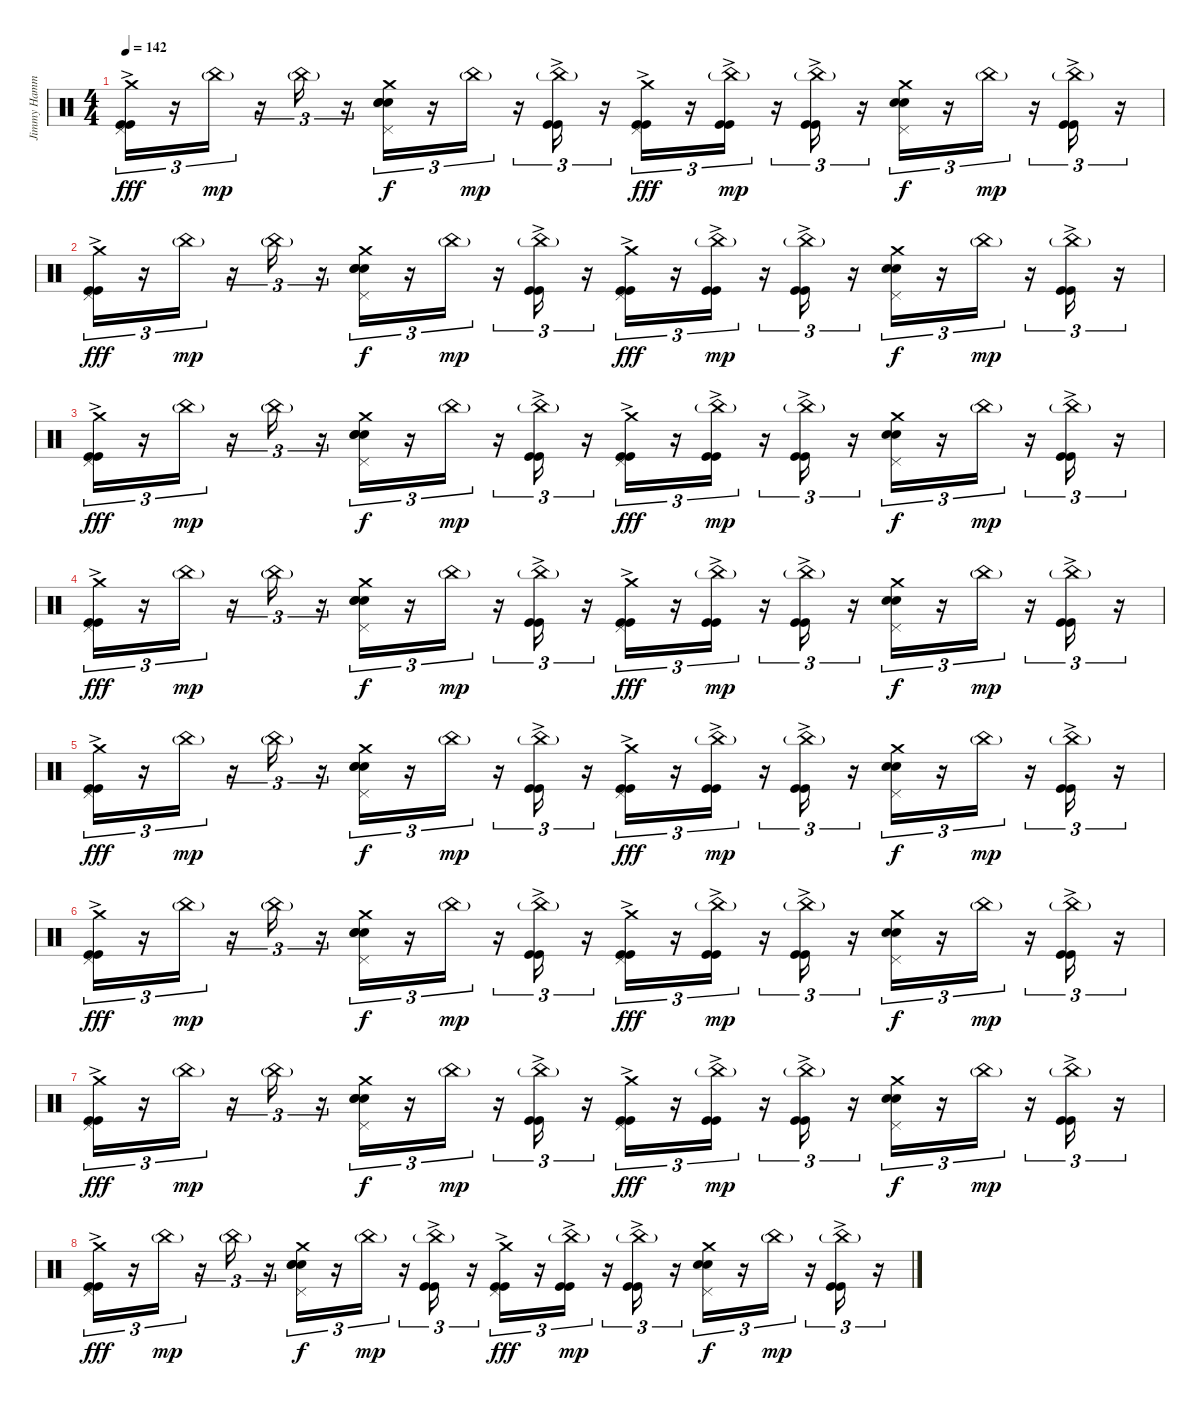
\track ("Jimmy Hammer" "Jimmy Hamm") {instrument percussion}
\staff {score}
\articulation defaults
\ts (4 4)
\tempo 142
\clef neutral
\ks c
("Kick (hit)"{ac} "Crash medium (hit)" "Pedal Hi-Hat (hit)" "Kick (hit)"{ac}).16{tu (3 2) dy fff} r.16{tu (3 2)} "China (hit)"{g}.16{tu (3 2) dy mp} r.16{tu (3 2)} "China (hit)"{g}.16{tu (3 2)} r.16{tu (3 2)} ("Crash medium (hit)" "Electric Snare (hit)" "Electric Snare (hit)" "Electric Snare (hit)" "Pedal Hi-Hat (hit)").16{tu (3 2) dy f} r.16{tu (3 2)} "China (hit)"{g}.16{tu (3 2) dy mp} r.16{tu (3 2)} ("Kick (hit)"{ac} "Kick (hit)"{ac} "China (hit)"{g}).16{tu (3 2)} r.16{tu (3 2)} ("Crash medium (hit)" "Kick (hit)"{ac} "Kick (hit)"{ac} "Pedal Hi-Hat (hit)").16{tu (3 2) dy fff} r.16{tu (3 2)} ("Kick (hit)"{ac} "Kick (hit)"{ac} "China (hit)"{g}).16{tu (3 2) dy mp} r.16{tu (3 2)} ("Kick (hit)"{ac} "Kick (hit)"{ac} "China (hit)"{g}).16{tu (3 2)} r.16{tu (3 2)} ("Electric Snare (hit)" "Electric Snare (hit)" "Crash medium (hit)" "Pedal Hi-Hat (hit)").16{tu (3 2) dy f} r.16{tu (3 2)} "China (hit)"{g}.16{tu (3 2) dy mp} r.16{tu (3 2)} ("Kick (hit)"{ac} "Kick (hit)"{ac} "China (hit)"{g}).16{tu (3 2)} r.16{tu (3 2)} |
("Kick (hit)"{ac} "Crash medium (hit)" "Pedal Hi-Hat (hit)" "Kick (hit)"{ac}).16{tu (3 2) dy fff} r.16{tu (3 2)} "China (hit)"{g}.16{tu (3 2) dy mp} r.16{tu (3 2)} "China (hit)"{g}.16{tu (3 2)} r.16{tu (3 2)} ("Crash medium (hit)" "Electric Snare (hit)" "Electric Snare (hit)" "Electric Snare (hit)" "Pedal Hi-Hat (hit)").16{tu (3 2) dy f} r.16{tu (3 2)} "China (hit)"{g}.16{tu (3 2) dy mp} r.16{tu (3 2)} ("Kick (hit)"{ac} "Kick (hit)"{ac} "China (hit)"{g}).16{tu (3 2)} r.16{tu (3 2)} ("Crash medium (hit)" "Kick (hit)"{ac} "Kick (hit)"{ac} "Pedal Hi-Hat (hit)").16{tu (3 2) dy fff} r.16{tu (3 2)} ("Kick (hit)"{ac} "Kick (hit)"{ac} "China (hit)"{g}).16{tu (3 2) dy mp} r.16{tu (3 2)} ("Kick (hit)"{ac} "Kick (hit)"{ac} "China (hit)"{g}).16{tu (3 2)} r.16{tu (3 2)} ("Electric Snare (hit)" "Electric Snare (hit)" "Crash medium (hit)" "Pedal Hi-Hat (hit)").16{tu (3 2) dy f} r.16{tu (3 2)} "China (hit)"{g}.16{tu (3 2) dy mp} r.16{tu (3 2)} ("Kick (hit)"{ac} "Kick (hit)"{ac} "China (hit)"{g}).16{tu (3 2)} r.16{tu (3 2)} |
("Kick (hit)"{ac} "Crash medium (hit)" "Pedal Hi-Hat (hit)" "Kick (hit)"{ac}).16{tu (3 2) dy fff} r.16{tu (3 2)} "China (hit)"{g}.16{tu (3 2) dy mp} r.16{tu (3 2)} "China (hit)"{g}.16{tu (3 2)} r.16{tu (3 2)} ("Crash medium (hit)" "Electric Snare (hit)" "Electric Snare (hit)" "Electric Snare (hit)" "Pedal Hi-Hat (hit)").16{tu (3 2) dy f} r.16{tu (3 2)} "China (hit)"{g}.16{tu (3 2) dy mp} r.16{tu (3 2)} ("Kick (hit)"{ac} "Kick (hit)"{ac} "China (hit)"{g}).16{tu (3 2)} r.16{tu (3 2)} ("Crash medium (hit)" "Kick (hit)"{ac} "Kick (hit)"{ac} "Pedal Hi-Hat (hit)").16{tu (3 2) dy fff} r.16{tu (3 2)} ("Kick (hit)"{ac} "Kick (hit)"{ac} "China (hit)"{g}).16{tu (3 2) dy mp} r.16{tu (3 2)} ("Kick (hit)"{ac} "Kick (hit)"{ac} "China (hit)"{g}).16{tu (3 2)} r.16{tu (3 2)} ("Electric Snare (hit)" "Electric Snare (hit)" "Crash medium (hit)" "Pedal Hi-Hat (hit)").16{tu (3 2) dy f} r.16{tu (3 2)} "China (hit)"{g}.16{tu (3 2) dy mp} r.16{tu (3 2)} ("Kick (hit)"{ac} "Kick (hit)"{ac} "China (hit)"{g}).16{tu (3 2)} r.16{tu (3 2)} |
("Kick (hit)"{ac} "Crash medium (hit)" "Pedal Hi-Hat (hit)" "Kick (hit)"{ac}).16{tu (3 2) dy fff} r.16{tu (3 2)} "China (hit)"{g}.16{tu (3 2) dy mp} r.16{tu (3 2)} "China (hit)"{g}.16{tu (3 2)} r.16{tu (3 2)} ("Crash medium (hit)" "Electric Snare (hit)" "Electric Snare (hit)" "Electric Snare (hit)" "Pedal Hi-Hat (hit)").16{tu (3 2) dy f} r.16{tu (3 2)} "China (hit)"{g}.16{tu (3 2) dy mp} r.16{tu (3 2)} ("Kick (hit)"{ac} "Kick (hit)"{ac} "China (hit)"{g}).16{tu (3 2)} r.16{tu (3 2)} ("Crash medium (hit)" "Kick (hit)"{ac} "Kick (hit)"{ac} "Pedal Hi-Hat (hit)").16{tu (3 2) dy fff} r.16{tu (3 2)} ("Kick (hit)"{ac} "Kick (hit)"{ac} "China (hit)"{g}).16{tu (3 2) dy mp} r.16{tu (3 2)} ("Kick (hit)"{ac} "Kick (hit)"{ac} "China (hit)"{g}).16{tu (3 2)} r.16{tu (3 2)} ("Electric Snare (hit)" "Electric Snare (hit)" "Crash medium (hit)" "Pedal Hi-Hat (hit)").16{tu (3 2) dy f} r.16{tu (3 2)} "China (hit)"{g}.16{tu (3 2) dy mp} r.16{tu (3 2)} ("Kick (hit)"{ac} "Kick (hit)"{ac} "China (hit)"{g}).16{tu (3 2)} r.16{tu (3 2)} |
("Kick (hit)"{ac} "Crash medium (hit)" "Pedal Hi-Hat (hit)" "Kick (hit)"{ac}).16{tu (3 2) dy fff} r.16{tu (3 2)} "China (hit)"{g}.16{tu (3 2) dy mp} r.16{tu (3 2)} "China (hit)"{g}.16{tu (3 2)} r.16{tu (3 2)} ("Crash medium (hit)" "Electric Snare (hit)" "Electric Snare (hit)" "Electric Snare (hit)" "Pedal Hi-Hat (hit)").16{tu (3 2) dy f} r.16{tu (3 2)} "China (hit)"{g}.16{tu (3 2) dy mp} r.16{tu (3 2)} ("Kick (hit)"{ac} "Kick (hit)"{ac} "China (hit)"{g}).16{tu (3 2)} r.16{tu (3 2)} ("Crash medium (hit)" "Kick (hit)"{ac} "Kick (hit)"{ac} "Pedal Hi-Hat (hit)").16{tu (3 2) dy fff} r.16{tu (3 2)} ("Kick (hit)"{ac} "Kick (hit)"{ac} "China (hit)"{g}).16{tu (3 2) dy mp} r.16{tu (3 2)} ("Kick (hit)"{ac} "Kick (hit)"{ac} "China (hit)"{g}).16{tu (3 2)} r.16{tu (3 2)} ("Electric Snare (hit)" "Electric Snare (hit)" "Crash medium (hit)" "Pedal Hi-Hat (hit)").16{tu (3 2) dy f} r.16{tu (3 2)} "China (hit)"{g}.16{tu (3 2) dy mp} r.16{tu (3 2)} ("Kick (hit)"{ac} "Kick (hit)"{ac} "China (hit)"{g}).16{tu (3 2)} r.16{tu (3 2)} |
("Kick (hit)"{ac} "Crash medium (hit)" "Pedal Hi-Hat (hit)" "Kick (hit)"{ac}).16{tu (3 2) dy fff} r.16{tu (3 2)} "China (hit)"{g}.16{tu (3 2) dy mp} r.16{tu (3 2)} "China (hit)"{g}.16{tu (3 2)} r.16{tu (3 2)} ("Crash medium (hit)" "Electric Snare (hit)" "Electric Snare (hit)" "Electric Snare (hit)" "Pedal Hi-Hat (hit)").16{tu (3 2) dy f} r.16{tu (3 2)} "China (hit)"{g}.16{tu (3 2) dy mp} r.16{tu (3 2)} ("Kick (hit)"{ac} "Kick (hit)"{ac} "China (hit)"{g}).16{tu (3 2)} r.16{tu (3 2)} ("Crash medium (hit)" "Kick (hit)"{ac} "Kick (hit)"{ac} "Pedal Hi-Hat (hit)").16{tu (3 2) dy fff} r.16{tu (3 2)} ("Kick (hit)"{ac} "Kick (hit)"{ac} "China (hit)"{g}).16{tu (3 2) dy mp} r.16{tu (3 2)} ("Kick (hit)"{ac} "Kick (hit)"{ac} "China (hit)"{g}).16{tu (3 2)} r.16{tu (3 2)} ("Electric Snare (hit)" "Electric Snare (hit)" "Crash medium (hit)" "Pedal Hi-Hat (hit)").16{tu (3 2) dy f} r.16{tu (3 2)} "China (hit)"{g}.16{tu (3 2) dy mp} r.16{tu (3 2)} ("Kick (hit)"{ac} "Kick (hit)"{ac} "China (hit)"{g}).16{tu (3 2)} r.16{tu (3 2)} |
("Kick (hit)"{ac} "Crash medium (hit)" "Pedal Hi-Hat (hit)" "Kick (hit)"{ac}).16{tu (3 2) dy fff} r.16{tu (3 2)} "China (hit)"{g}.16{tu (3 2) dy mp} r.16{tu (3 2)} "China (hit)"{g}.16{tu (3 2)} r.16{tu (3 2)} ("Crash medium (hit)" "Electric Snare (hit)" "Electric Snare (hit)" "Electric Snare (hit)" "Pedal Hi-Hat (hit)").16{tu (3 2) dy f} r.16{tu (3 2)} "China (hit)"{g}.16{tu (3 2) dy mp} r.16{tu (3 2)} ("Kick (hit)"{ac} "Kick (hit)"{ac} "China (hit)"{g}).16{tu (3 2)} r.16{tu (3 2)} ("Crash medium (hit)" "Kick (hit)"{ac} "Kick (hit)"{ac} "Pedal Hi-Hat (hit)").16{tu (3 2) dy fff} r.16{tu (3 2)} ("Kick (hit)"{ac} "Kick (hit)"{ac} "China (hit)"{g}).16{tu (3 2) dy mp} r.16{tu (3 2)} ("Kick (hit)"{ac} "Kick (hit)"{ac} "China (hit)"{g}).16{tu (3 2)} r.16{tu (3 2)} ("Electric Snare (hit)" "Electric Snare (hit)" "Crash medium (hit)" "Pedal Hi-Hat (hit)").16{tu (3 2) dy f} r.16{tu (3 2)} "China (hit)"{g}.16{tu (3 2) dy mp} r.16{tu (3 2)} ("Kick (hit)"{ac} "Kick (hit)"{ac} "China (hit)"{g}).16{tu (3 2)} r.16{tu (3 2)} |
("Kick (hit)"{ac} "Crash medium (hit)" "Pedal Hi-Hat (hit)" "Kick (hit)"{ac}).16{tu (3 2) dy fff} r.16{tu (3 2)} "China (hit)"{g}.16{tu (3 2) dy mp} r.16{tu (3 2)} "China (hit)"{g}.16{tu (3 2)} r.16{tu (3 2)} ("Crash medium (hit)" "Electric Snare (hit)" "Electric Snare (hit)" "Electric Snare (hit)" "Pedal Hi-Hat (hit)").16{tu (3 2) dy f} r.16{tu (3 2)} "China (hit)"{g}.16{tu (3 2) dy mp} r.16{tu (3 2)} ("Kick (hit)"{ac} "Kick (hit)"{ac} "China (hit)"{g}).16{tu (3 2)} r.16{tu (3 2)} ("Crash medium (hit)" "Kick (hit)"{ac} "Kick (hit)"{ac} "Pedal Hi-Hat (hit)").16{tu (3 2) dy fff} r.16{tu (3 2)} ("Kick (hit)"{ac} "Kick (hit)"{ac} "China (hit)"{g}).16{tu (3 2) dy mp} r.16{tu (3 2)} ("Kick (hit)"{ac} "Kick (hit)"{ac} "China (hit)"{g}).16{tu (3 2)} r.16{tu (3 2)} ("Electric Snare (hit)" "Electric Snare (hit)" "Crash medium (hit)" "Pedal Hi-Hat (hit)").16{tu (3 2) dy f} r.16{tu (3 2)} "China (hit)"{g}.16{tu (3 2) dy mp} r.16{tu (3 2)} ("Kick (hit)"{ac} "Kick (hit)"{ac} "China (hit)"{g}).16{tu (3 2)} r.16{tu (3 2)}
